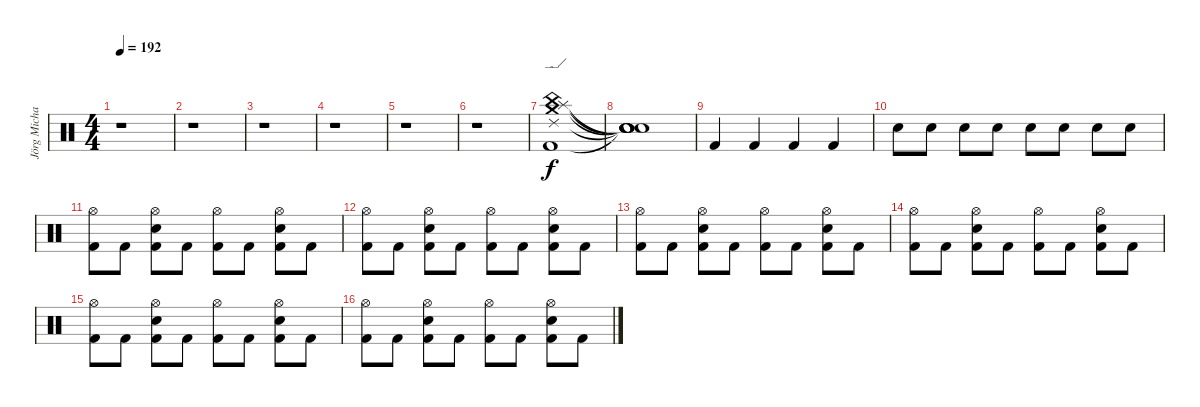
\track ("Jörg Michael" "Jörg Micha") {instrument percussion}
\staff {score}
\articulation defaults
\ts (4 4)
\tempo 192
\clef neutral
\ks c
r.1{dy f} |
r.1 |
r.1 |
r.1 |
r.1 |
r.1 |
("Ride (edge) 2" "Crash medium (hit)" "Splash (hit)" "China (hit)" "Kick (hit) 2").1 |
("Snare (hit)"{t} "Snare (hit)"{t} "Snare (hit)"{t} "Snare (hit)"{t} "Snare (hit)"{t}).1 |
"Kick (hit) 2".4{volume 7} "Kick (hit) 2".4{volume 7} "Kick (hit) 2".4{volume 8} "Kick (hit) 2".4{volume 8} |
"Electric Snare (hit)".8{volume 9} "Electric Snare (hit)".8{volume 9} "Electric Snare (hit)".8{volume 9} "Electric Snare (hit)".8{volume 9} "Electric Snare (hit)".8{volume 10} "Electric Snare (hit)".8{volume 10} "Electric Snare (hit)".8{volume 10} "Electric Snare (hit)".8{volume 10} |
("Hi-Hat (open)" "Kick (hit) 2").8{volume 11} "Kick (hit) 2".8 ("Electric Snare (hit)" "Hi-Hat (open)" "Kick (hit) 2").8 "Kick (hit) 2".8 ("Hi-Hat (open)" "Kick (hit) 2").8 "Kick (hit) 2".8 ("Electric Snare (hit)" "Hi-Hat (open)" "Kick (hit) 2").8 "Kick (hit) 2".8 |
("Hi-Hat (open)" "Kick (hit) 2").8 "Kick (hit) 2".8 ("Electric Snare (hit)" "Hi-Hat (open)" "Kick (hit) 2").8 "Kick (hit) 2".8 ("Hi-Hat (open)" "Kick (hit) 2").8 "Kick (hit) 2".8 ("Electric Snare (hit)" "Hi-Hat (open)" "Kick (hit) 2").8 "Kick (hit) 2".8 |
("Hi-Hat (open)" "Kick (hit) 2").8 "Kick (hit) 2".8 ("Electric Snare (hit)" "Hi-Hat (open)" "Kick (hit) 2").8 "Kick (hit) 2".8 ("Hi-Hat (open)" "Kick (hit) 2").8 "Kick (hit) 2".8 ("Electric Snare (hit)" "Hi-Hat (open)" "Kick (hit) 2").8 "Kick (hit) 2".8 |
("Hi-Hat (open)" "Kick (hit) 2").8 "Kick (hit) 2".8 ("Electric Snare (hit)" "Hi-Hat (open)" "Kick (hit) 2").8 "Kick (hit) 2".8 ("Hi-Hat (open)" "Kick (hit) 2").8 "Kick (hit) 2".8 ("Electric Snare (hit)" "Hi-Hat (open)" "Kick (hit) 2").8 "Kick (hit) 2".8 |
("Hi-Hat (open)" "Kick (hit) 2").8 "Kick (hit) 2".8 ("Electric Snare (hit)" "Hi-Hat (open)" "Kick (hit) 2").8 "Kick (hit) 2".8 ("Hi-Hat (open)" "Kick (hit) 2").8 "Kick (hit) 2".8 ("Electric Snare (hit)" "Hi-Hat (open)" "Kick (hit) 2").8 "Kick (hit) 2".8 |
("Hi-Hat (open)" "Kick (hit) 2").8 "Kick (hit) 2".8 ("Electric Snare (hit)" "Hi-Hat (open)" "Kick (hit) 2").8 "Kick (hit) 2".8 ("Hi-Hat (open)" "Kick (hit) 2").8 "Kick (hit) 2".8 ("Electric Snare (hit)" "Hi-Hat (open)" "Kick (hit) 2").8 "Kick (hit) 2".8
